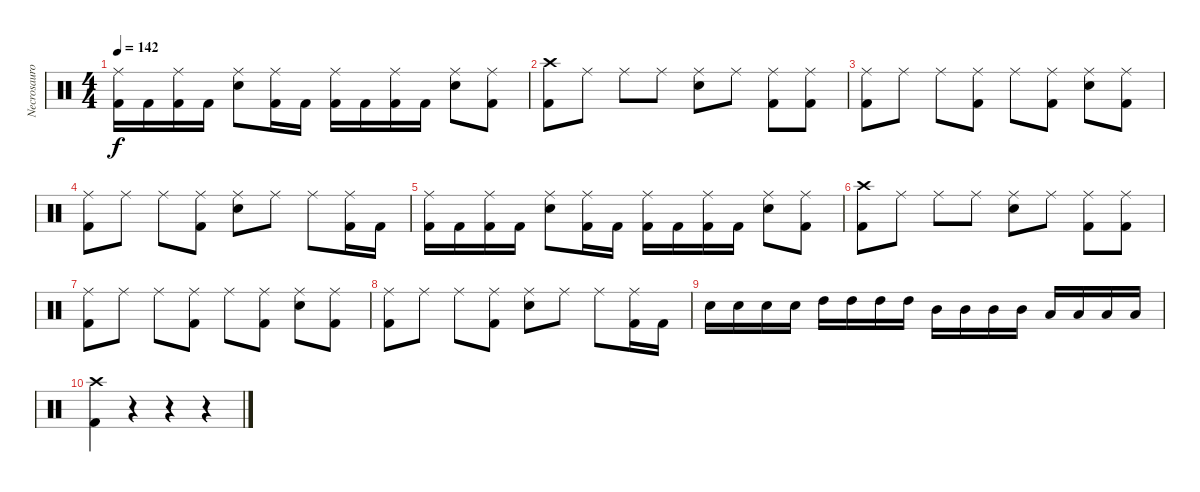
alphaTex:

\track ("Necrosauron" "Necrosauro") {instrument percussion}
\staff {score}
\articulation defaults
\ts (4 4)
\tempo 142
\clef neutral
\ks c
("Ride (middle)" "Kick (hit) 2").16{dy f} "Kick (hit) 2".16 ("Ride (middle)" "Kick (hit) 2").16 "Kick (hit) 2".16 ("Ride (middle)" "Snare (hit) 2").8 ("Ride (middle)" "Kick (hit) 2").16 "Kick (hit) 2".16 ("Ride (middle)" "Kick (hit) 2").16 "Kick (hit) 2".16 ("Ride (middle)" "Kick (hit) 2").16 "Kick (hit) 2".16 ("Ride (middle)" "Snare (hit) 2").8 ("Ride (middle)" "Kick (hit) 2").8 |
("Crash high (hit)" "Kick (hit) 2").8 "Ride (middle)".8 "Ride (middle)".8 "Ride (middle)".8 ("Ride (middle)" "Snare (hit) 2").8 "Ride (middle)".8 ("Ride (middle)" "Kick (hit) 2").8 ("Ride (middle)" "Kick (hit) 2").8 |
("Ride (middle)" "Kick (hit) 2").8 "Ride (middle)".8 "Ride (middle)".8 ("Ride (middle)" "Kick (hit) 2").8 "Ride (middle)".8 ("Ride (middle)" "Kick (hit) 2").8 ("Ride (middle)" "Snare (hit) 2").8 ("Ride (middle)" "Kick (hit) 2").8 |
("Ride (middle)" "Kick (hit) 2").8 "Ride (middle)".8 "Ride (middle)".8 ("Ride (middle)" "Kick (hit) 2").8 ("Ride (middle)" "Snare (hit) 2").8 "Ride (middle)".8 "Ride (middle)".8 ("Ride (middle)" "Kick (hit) 2").16 "Kick (hit) 2".16 |
("Ride (middle)" "Kick (hit) 2").16 "Kick (hit) 2".16 ("Ride (middle)" "Kick (hit) 2").16 "Kick (hit) 2".16 ("Ride (middle)" "Snare (hit) 2").8 ("Ride (middle)" "Kick (hit) 2").16 "Kick (hit) 2".16 ("Ride (middle)" "Kick (hit) 2").16 "Kick (hit) 2".16 ("Ride (middle)" "Kick (hit) 2").16 "Kick (hit) 2".16 ("Ride (middle)" "Snare (hit) 2").8 ("Ride (middle)" "Kick (hit) 2").8 |
("Crash high (hit)" "Kick (hit) 2").8 "Ride (middle)".8 "Ride (middle)".8 "Ride (middle)".8 ("Ride (middle)" "Snare (hit) 2").8 "Ride (middle)".8 ("Ride (middle)" "Kick (hit) 2").8 ("Ride (middle)" "Kick (hit) 2").8 |
("Ride (middle)" "Kick (hit) 2").8 "Ride (middle)".8 "Ride (middle)".8 ("Ride (middle)" "Kick (hit) 2").8 "Ride (middle)".8 ("Ride (middle)" "Kick (hit) 2").8 ("Ride (middle)" "Snare (hit) 2").8 ("Ride (middle)" "Kick (hit) 2").8 |
("Ride (middle)" "Kick (hit) 2").8 "Ride (middle)".8 "Ride (middle)".8 ("Ride (middle)" "Kick (hit) 2").8 ("Ride (middle)" "Snare (hit) 2").8 "Ride (middle)".8 "Ride (middle)".8 ("Ride (middle)" "Kick (hit) 2").16 "Kick (hit) 2".16 |
"Snare (hit) 2".16 "Snare (hit) 2".16 "Snare (hit) 2".16 "Snare (hit) 2".16 "High Tom (hit)".16 "High Tom (hit)".16 "High Tom (hit)".16 "High Tom (hit)".16 "Mid Tom (hit)".16 "Mid Tom (hit)".16 "Mid Tom (hit)".16 "Mid Tom (hit)".16 "Low Tom (hit)".16 "Low Tom (hit)".16 "Low Tom (hit)".16 "Low Tom (hit)".16 |
("Crash high (hit)" "Kick (hit) 2").4 r.4 r.4 r.4
